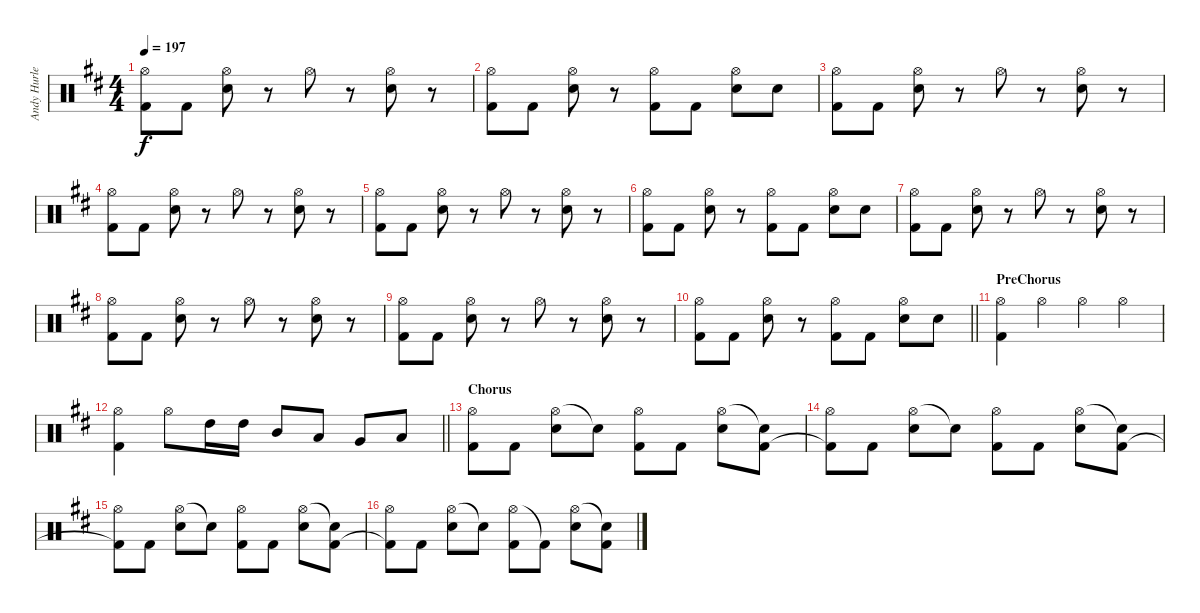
\track ("Andy Hurley (Drums)" "Andy Hurle") {instrument percussion}
\staff {score}
\articulation defaults
\ts (4 4)
\tempo 197
\clef neutral
\ks d
("Hi-Hat (open)" "Kick (hit) 2").8{dy f} "Kick (hit) 2".8 ("Hi-Hat (open)" "Electric Snare (hit)").8 r.8 "Hi-Hat (open)".8 r.8 ("Hi-Hat (open)" "Electric Snare (hit)").8 r.8 |
("Hi-Hat (open)" "Kick (hit) 2").8 "Kick (hit) 2".8 ("Hi-Hat (open)" "Electric Snare (hit)").8 r.8 ("Hi-Hat (open)" "Kick (hit) 2").8 "Kick (hit) 2".8 ("Hi-Hat (open)" "Electric Snare (hit)").8 "Electric Snare (hit)".8 |
("Hi-Hat (open)" "Kick (hit) 2").8 "Kick (hit) 2".8 ("Hi-Hat (open)" "Electric Snare (hit)").8 r.8 "Hi-Hat (open)".8 r.8 ("Hi-Hat (open)" "Electric Snare (hit)").8 r.8 |
("Hi-Hat (open)" "Kick (hit) 2").8 "Kick (hit) 2".8 ("Hi-Hat (open)" "Electric Snare (hit)").8 r.8 "Hi-Hat (open)".8 r.8 ("Hi-Hat (open)" "Electric Snare (hit)").8 r.8 |
("Hi-Hat (open)" "Kick (hit) 2").8 "Kick (hit) 2".8 ("Hi-Hat (open)" "Electric Snare (hit)").8 r.8 "Hi-Hat (open)".8 r.8 ("Hi-Hat (open)" "Electric Snare (hit)").8 r.8 |
("Hi-Hat (open)" "Kick (hit) 2").8 "Kick (hit) 2".8 ("Hi-Hat (open)" "Electric Snare (hit)").8 r.8 ("Hi-Hat (open)" "Kick (hit) 2").8 "Kick (hit) 2".8 ("Hi-Hat (open)" "Electric Snare (hit)").8 "Electric Snare (hit)".8 |
("Hi-Hat (open)" "Kick (hit) 2").8 "Kick (hit) 2".8 ("Hi-Hat (open)" "Electric Snare (hit)").8 r.8 "Hi-Hat (open)".8 r.8 ("Hi-Hat (open)" "Electric Snare (hit)").8 r.8 |
("Hi-Hat (open)" "Kick (hit) 2").8 "Kick (hit) 2".8 ("Hi-Hat (open)" "Electric Snare (hit)").8 r.8 "Hi-Hat (open)".8 r.8 ("Hi-Hat (open)" "Electric Snare (hit)").8 r.8 |
("Hi-Hat (open)" "Kick (hit) 2").8 "Kick (hit) 2".8 ("Hi-Hat (open)" "Electric Snare (hit)").8 r.8 "Hi-Hat (open)".8 r.8 ("Hi-Hat (open)" "Electric Snare (hit)").8 r.8 |
\barLineRight lightlight
("Hi-Hat (open)" "Kick (hit) 2").8 "Kick (hit) 2".8 ("Hi-Hat (open)" "Electric Snare (hit)").8 r.8 ("Hi-Hat (open)" "Kick (hit) 2").8 "Kick (hit) 2".8 ("Hi-Hat (open)" "Electric Snare (hit)").8 "Electric Snare (hit)".8 |
\section ("" "PreChorus")
("Hi-Hat (open)" "Kick (hit) 2").4 "Hi-Hat (open)".4 "Hi-Hat (open)".4 "Hi-Hat (open)".4 |
\barLineRight lightlight
("Hi-Hat (open)" "Kick (hit) 2").4 "Hi-Hat (open)".8 "High Tom (hit)".16 "High Tom (hit)".16 "Mid Tom (hit)".8 "Low Tom (hit)".8 "Very Low Tom (hit)".8 "Low Floor Tom (hit)".8 |
\section ("" "Chorus")
("Hi-Hat (open)" "Kick (hit) 2").8 "Kick (hit) 2".8 ("Hi-Hat (open)" "Electric Snare (hit)").8 "Snare (hit)"{t}.8 ("Hi-Hat (open)" "Kick (hit) 2").8 "Kick (hit) 2".8 ("Hi-Hat (open)" "Electric Snare (hit)").8 ("Snare (hit)"{t} "Kick (hit) 2").8 |
("Hi-Hat (open)" "Kick (hit) 2"{t}).8 "Kick (hit) 2".8 ("Hi-Hat (open)" "Electric Snare (hit)").8 "Snare (hit)"{t}.8 ("Hi-Hat (open)" "Kick (hit) 2").8 "Kick (hit) 2".8 ("Hi-Hat (open)" "Electric Snare (hit)").8 ("Snare (hit)"{t} "Kick (hit) 2").8 |
("Hi-Hat (open)" "Kick (hit) 2"{t}).8 "Kick (hit) 2".8 ("Hi-Hat (open)" "Electric Snare (hit)").8 "Snare (hit)"{t}.8 ("Hi-Hat (open)" "Kick (hit) 2").8 "Kick (hit) 2".8 ("Hi-Hat (open)" "Electric Snare (hit)").8 ("Snare (hit)"{t} "Kick (hit) 2").8 |
("Hi-Hat (open)" "Kick (hit) 2"{t}).8 "Kick (hit) 2".8 ("Hi-Hat (open)" "Electric Snare (hit)").8 "Snare (hit)"{t}.8 ("Hi-Hat (open)" "Kick (hit) 2").8 "Kick (hit) 2"{t}.8 ("Hi-Hat (open)" "Electric Snare (hit)").8 ("Snare (hit)"{t} "Kick (hit) 2").8
